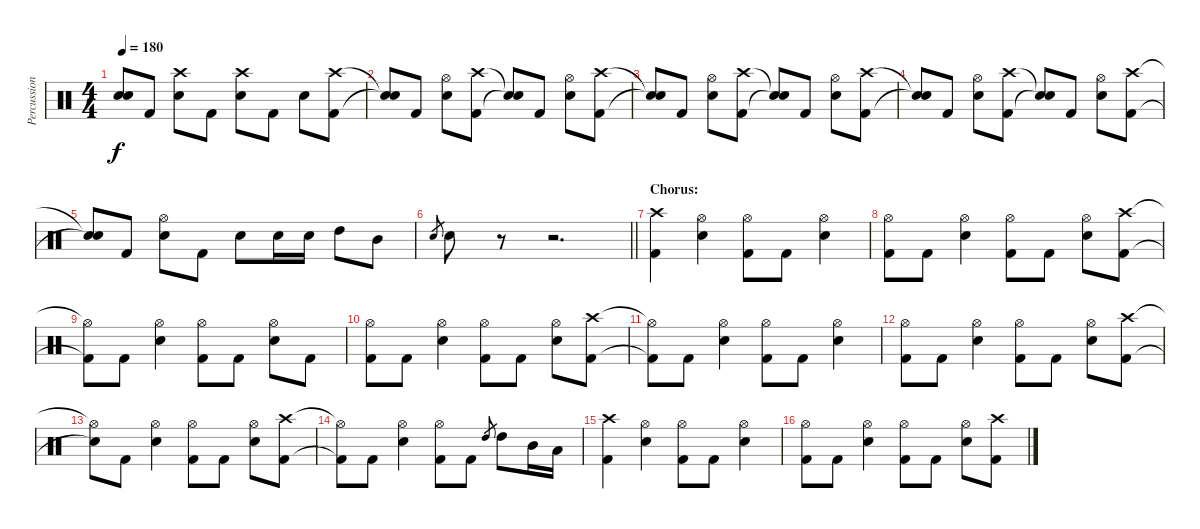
\track ("Percussion" "Percussion") {instrument percussion}
\staff {score}
\articulation defaults
\ts (4 4)
\tempo 180
\clef neutral
\ks c
("Snare (hit)"{t} "Snare (hit)"{t}).8{dy f} "Kick (hit) 2".8 ("Crash high (hit)" "Electric Snare (hit)").8 "Kick (hit) 2".8 ("Crash high (hit)" "Electric Snare (hit)").8 "Kick (hit) 2".8 "Electric Snare (hit)".8 ("Crash high (hit)" "Kick (hit) 2").8 |
("Snare (hit)"{t} "Snare (hit)"{t}).8 "Kick (hit) 2".8 ("Hi-Hat (open)" "Electric Snare (hit)").8 ("Crash high (hit)" "Kick (hit) 2").8 ("Snare (hit)"{t} "Snare (hit)"{t}).8 "Kick (hit) 2".8 ("Hi-Hat (open)" "Electric Snare (hit)").8 ("Crash high (hit)" "Kick (hit) 2").8 |
("Snare (hit)"{t} "Snare (hit)"{t}).8 "Kick (hit) 2".8 ("Hi-Hat (open)" "Electric Snare (hit)").8 ("Crash high (hit)" "Kick (hit) 2").8 ("Snare (hit)"{t} "Snare (hit)"{t}).8 "Kick (hit) 2".8 ("Hi-Hat (open)" "Electric Snare (hit)").8 ("Crash high (hit)" "Kick (hit) 2").8 |
("Snare (hit)"{t} "Snare (hit)"{t}).8 "Kick (hit) 2".8 ("Hi-Hat (open)" "Electric Snare (hit)").8 ("Crash high (hit)" "Kick (hit) 2").8 ("Snare (hit)"{t} "Snare (hit)"{t}).8 "Kick (hit) 2".8 ("Hi-Hat (open)" "Electric Snare (hit)").8 ("Crash high (hit)" "Kick (hit) 2").8 |
("Snare (hit)"{t} "Snare (hit)"{t}).8 "Kick (hit) 2".8 ("Hi-Hat (open)" "Electric Snare (hit)").8 "Kick (hit) 2".8 "Electric Snare (hit)".8 "Electric Snare (hit)".16 "Electric Snare (hit)".16 "High Tom (hit)".8 "Mid Tom (hit)".8 |
\barLineRight lightlight "Electric Snare (hit)".8{gr} "Electric Snare (hit)".8
r.8 r.2{d} |
\section ("" "Chorus:")
("Crash high (hit)" "Kick (hit) 2").4 ("Hi-Hat (open)" "Electric Snare (hit)").4 ("Hi-Hat (open)" "Kick (hit) 2").8 "Kick (hit) 2".8 ("Hi-Hat (open)" "Electric Snare (hit)").4 |
("Hi-Hat (open)" "Kick (hit) 2").8 "Kick (hit) 2".8 ("Hi-Hat (open)" "Electric Snare (hit)").4 ("Hi-Hat (open)" "Kick (hit) 2").8 "Kick (hit) 2".8 ("Hi-Hat (open)" "Electric Snare (hit)").8 ("Crash high (hit)" "Kick (hit) 2").8 |
("Hi-Hat (open)"{t} "Kick (hit) 2"{t}).8 "Kick (hit) 2".8 ("Hi-Hat (open)" "Electric Snare (hit)").4 ("Hi-Hat (open)" "Kick (hit) 2").8 "Kick (hit) 2".8 ("Hi-Hat (open)" "Electric Snare (hit)").8 "Kick (hit) 2".8 |
("Hi-Hat (open)" "Kick (hit) 2").8 "Kick (hit) 2".8 ("Hi-Hat (open)" "Electric Snare (hit)").4 ("Hi-Hat (open)" "Kick (hit) 2").8 "Kick (hit) 2".8 ("Hi-Hat (open)" "Electric Snare (hit)").8 ("Crash high (hit)" "Kick (hit) 2").8 |
("Hi-Hat (open)"{t} "Kick (hit) 2"{t}).8 "Kick (hit) 2".8 ("Hi-Hat (open)" "Electric Snare (hit)").4 ("Hi-Hat (open)" "Kick (hit) 2").8 "Kick (hit) 2".8 ("Hi-Hat (open)" "Electric Snare (hit)").4 |
("Hi-Hat (open)" "Kick (hit) 2").8 "Kick (hit) 2".8 ("Hi-Hat (open)" "Electric Snare (hit)").4 ("Hi-Hat (open)" "Kick (hit) 2").8 "Kick (hit) 2".8 ("Hi-Hat (open)" "Electric Snare (hit)").8 ("Crash high (hit)" "Kick (hit) 2").8 |
("Hi-Hat (open)"{t} "Snare (hit)"{t}).8 "Kick (hit) 2".8 ("Hi-Hat (open)" "Electric Snare (hit)").4 ("Hi-Hat (open)" "Kick (hit) 2").8 "Kick (hit) 2".8 ("Hi-Hat (open)" "Electric Snare (hit)").8 ("Crash high (hit)" "Kick (hit) 2").8 |
("Hi-Hat (open)"{t} "Kick (hit) 2"{t}).8 "Kick (hit) 2".8 ("Hi-Hat (open)" "Electric Snare (hit)").4 ("Hi-Hat (open)" "Kick (hit) 2").8 "Kick (hit) 2".8 "High Tom (hit)".8{gr} "High Tom (hit)".8 "Mid Tom (hit)".16 "Low Tom (hit)".16 |
("Crash high (hit)" "Kick (hit) 2").4 ("Hi-Hat (open)" "Electric Snare (hit)").4 ("Hi-Hat (open)" "Kick (hit) 2").8 "Kick (hit) 2".8 ("Hi-Hat (open)" "Electric Snare (hit)").4 |
("Hi-Hat (open)" "Kick (hit) 2").8 "Kick (hit) 2".8 ("Hi-Hat (open)" "Electric Snare (hit)").4 ("Hi-Hat (open)" "Kick (hit) 2").8 "Kick (hit) 2".8 ("Hi-Hat (open)" "Electric Snare (hit)").8 ("Crash high (hit)" "Kick (hit) 2").8
